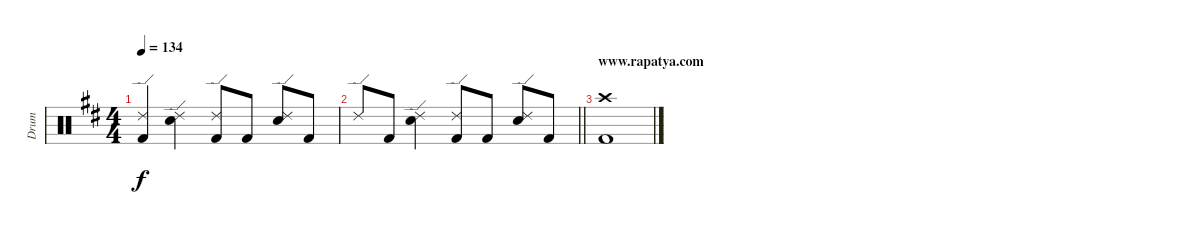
\track ("Drum" "Drum") {instrument percussion}
\staff {score}
\articulation defaults
\ts (4 4)
\tempo 134
\clef neutral
\ks d
("Kick (hit) 2" "Ride (edge) 2").4{dy f} ("Electric Snare (hit)" "Ride (edge) 2").4 ("Ride (edge) 2" "Kick (hit) 2").8 "Kick (hit) 2".8 ("Electric Snare (hit)" "Ride (edge) 2").8 "Kick (hit) 2".8 |
\barLineRight lightlight "Ride (edge) 2".8 "Kick (hit) 2".8
("Electric Snare (hit)" "Ride (edge) 2").4 ("Kick (hit) 2" "Ride (edge) 2").8 "Kick (hit) 2".8 ("Ride (edge) 2" "Electric Snare (hit)").8 "Kick (hit) 2".8 |
\section ("" "www.rapatya.com")
("Kick (hit) 2" "Crash high (hit)").1
